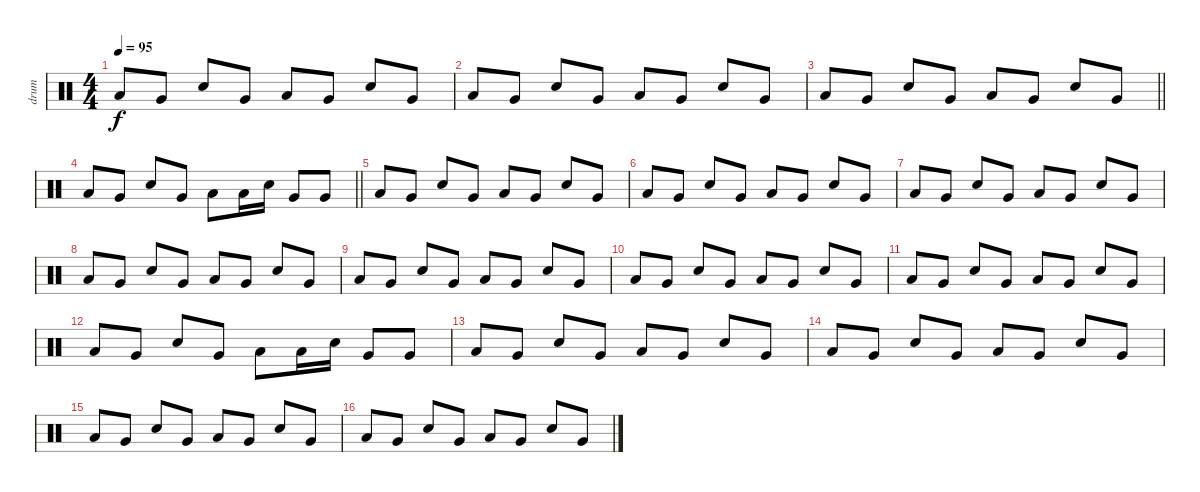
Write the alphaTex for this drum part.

\track ("drum" "drum") {instrument percussion}
\staff {score}
\articulation defaults
\ts (4 4)
\tempo 95
\clef neutral
\ks c "Low Floor Tom (hit)".8{dy f} "Very Low Tom (hit)".8 "Snare (hit) 2".8 "Very Low Tom (hit)".8 "Low Floor Tom (hit)".8 "Very Low Tom (hit)".8 "Snare (hit) 2".8 "Very Low Tom (hit)".8
|
"Low Floor Tom (hit)".8 "Very Low Tom (hit)".8 "Snare (hit) 2".8 "Very Low Tom (hit)".8 "Low Floor Tom (hit)".8 "Very Low Tom (hit)".8 "Snare (hit) 2".8 "Very Low Tom (hit)".8 |
\barLineRight lightlight "Low Floor Tom (hit)".8 "Very Low Tom (hit)".8 "Snare (hit) 2".8 "Very Low Tom (hit)".8 "Low Floor Tom (hit)".8 "Very Low Tom (hit)".8 "Snare (hit) 2".8 "Very Low Tom (hit)".8
|
\section ("" "")
\barLineRight lightlight "Low Floor Tom (hit)".8 "Very Low Tom (hit)".8 "Snare (hit) 2".8 "Very Low Tom (hit)".8 "Low Floor Tom (hit)".8 "Low Floor Tom (hit)".16 "Snare (hit) 2".16 "Very Low Tom (hit)".8 "Very Low Tom (hit)".8
|
\section ("" "")
"Low Floor Tom (hit)".8 "Very Low Tom (hit)".8 "Snare (hit) 2".8 "Very Low Tom (hit)".8 "Low Floor Tom (hit)".8 "Very Low Tom (hit)".8 "Snare (hit) 2".8 "Very Low Tom (hit)".8 |
"Low Floor Tom (hit)".8 "Very Low Tom (hit)".8 "Snare (hit) 2".8 "Very Low Tom (hit)".8 "Low Floor Tom (hit)".8 "Very Low Tom (hit)".8 "Snare (hit) 2".8 "Very Low Tom (hit)".8 |
"Low Floor Tom (hit)".8 "Very Low Tom (hit)".8 "Snare (hit) 2".8 "Very Low Tom (hit)".8 "Low Floor Tom (hit)".8 "Very Low Tom (hit)".8 "Snare (hit) 2".8 "Very Low Tom (hit)".8 |
"Low Floor Tom (hit)".8 "Very Low Tom (hit)".8 "Snare (hit) 2".8 "Very Low Tom (hit)".8 "Low Floor Tom (hit)".8 "Very Low Tom (hit)".8 "Snare (hit) 2".8 "Very Low Tom (hit)".8 |
"Low Floor Tom (hit)".8 "Very Low Tom (hit)".8 "Snare (hit) 2".8 "Very Low Tom (hit)".8 "Low Floor Tom (hit)".8 "Very Low Tom (hit)".8 "Snare (hit) 2".8 "Very Low Tom (hit)".8 |
"Low Floor Tom (hit)".8 "Very Low Tom (hit)".8 "Snare (hit) 2".8 "Very Low Tom (hit)".8 "Low Floor Tom (hit)".8 "Very Low Tom (hit)".8 "Snare (hit) 2".8 "Very Low Tom (hit)".8 |
"Low Floor Tom (hit)".8 "Very Low Tom (hit)".8 "Snare (hit) 2".8 "Very Low Tom (hit)".8 "Low Floor Tom (hit)".8 "Very Low Tom (hit)".8 "Snare (hit) 2".8 "Very Low Tom (hit)".8 |
"Low Floor Tom (hit)".8 "Very Low Tom (hit)".8 "Snare (hit) 2".8 "Very Low Tom (hit)".8 "Low Floor Tom (hit)".8 "Low Floor Tom (hit)".16 "Snare (hit) 2".16 "Very Low Tom (hit)".8 "Very Low Tom (hit)".8 |
"Low Floor Tom (hit)".8 "Very Low Tom (hit)".8 "Snare (hit) 2".8 "Very Low Tom (hit)".8 "Low Floor Tom (hit)".8 "Very Low Tom (hit)".8 "Snare (hit) 2".8 "Very Low Tom (hit)".8 |
"Low Floor Tom (hit)".8 "Very Low Tom (hit)".8 "Snare (hit) 2".8 "Very Low Tom (hit)".8 "Low Floor Tom (hit)".8 "Very Low Tom (hit)".8 "Snare (hit) 2".8 "Very Low Tom (hit)".8 |
"Low Floor Tom (hit)".8 "Very Low Tom (hit)".8 "Snare (hit) 2".8 "Very Low Tom (hit)".8 "Low Floor Tom (hit)".8 "Very Low Tom (hit)".8 "Snare (hit) 2".8 "Very Low Tom (hit)".8 |
"Low Floor Tom (hit)".8 "Very Low Tom (hit)".8 "Snare (hit) 2".8 "Very Low Tom (hit)".8 "Low Floor Tom (hit)".8 "Very Low Tom (hit)".8 "Snare (hit) 2".8 "Very Low Tom (hit)".8
